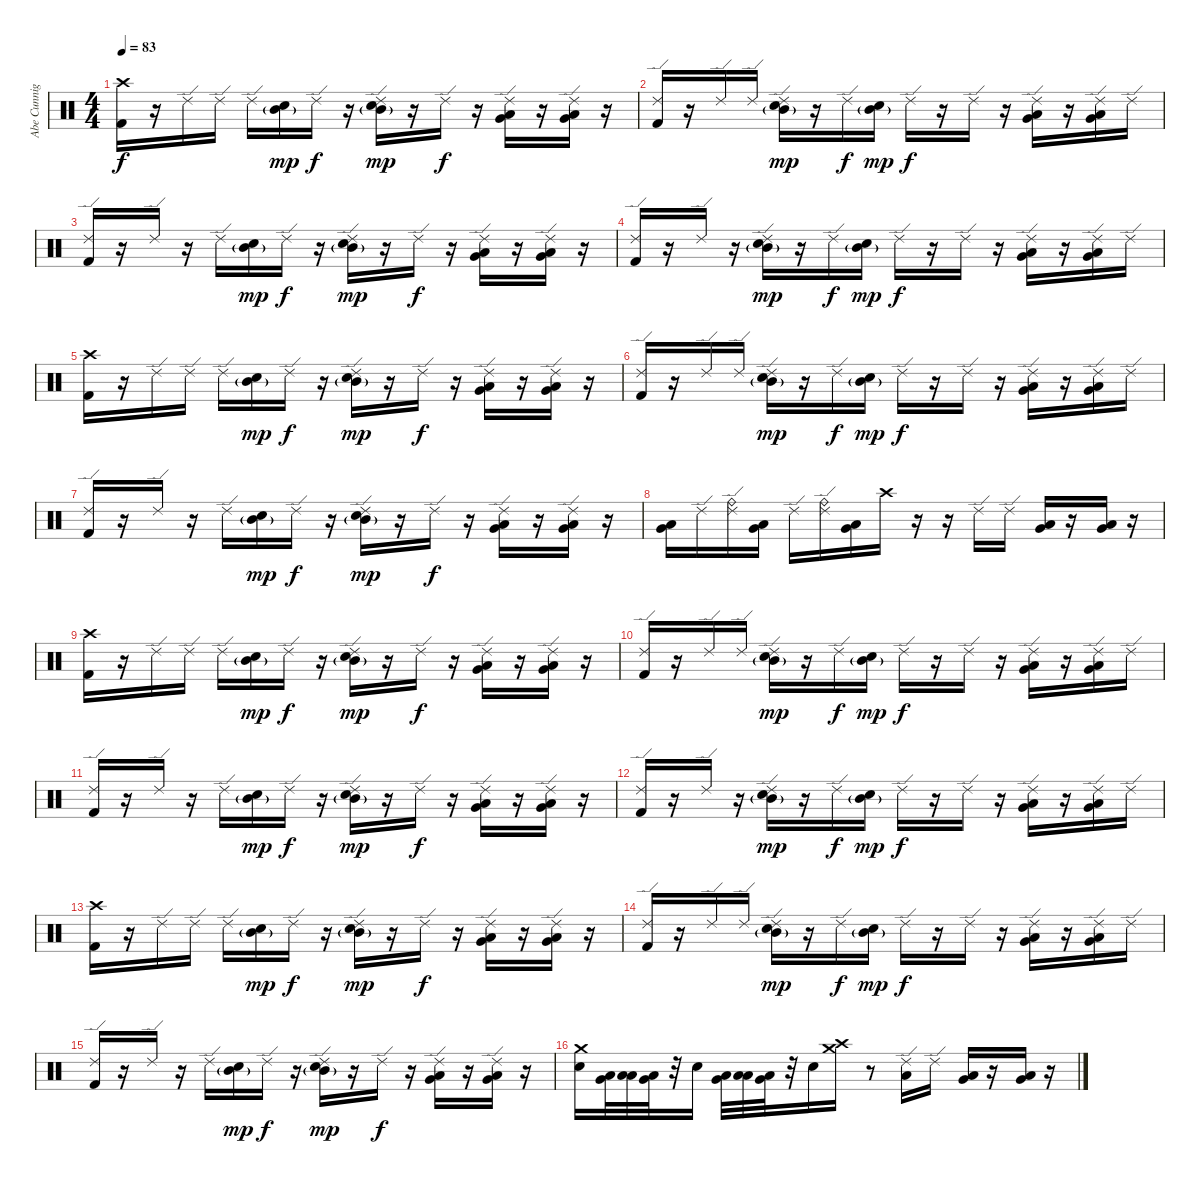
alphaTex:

\track ("Abe Cunnigham" "Abe Cunnig") {instrument percussion}
\staff {score}
\articulation defaults
\ts (4 4)
\tempo 83
\clef neutral
\ks c
("Crash high (hit)" "Kick (hit) 2").16{dy f} r.16 "Ride (edge) 2".16 "Ride (edge) 2".16 "Ride (edge) 2".16 ("Mid Tom (hit)"{g} "Electric Snare (hit)").16{dy mp} "Ride (edge) 2".16{dy f} r.16 ("Ride (edge) 2" "Mid Tom (hit)"{g} "Electric Snare (hit)").16{dy mp} r.16 "Ride (edge) 2".16{dy f} r.16 ("Ride (edge) 2" "Very Low Tom (hit)" "Low Tom (hit)").16 r.16 ("Ride (edge) 2" "Very Low Tom (hit)" "Low Tom (hit)").16 r.16 |
("Ride (edge) 2" "Kick (hit) 2").16 r.16 "Ride (edge) 2".16 "Ride (edge) 2".16 ("Ride (edge) 2" "Mid Tom (hit)"{g} "Electric Snare (hit)").16{dy mp} r.16 "Ride (edge) 2".16{dy f} ("Mid Tom (hit)"{g} "Electric Snare (hit)").16{dy mp} "Ride (edge) 2".16{dy f} r.16 "Ride (edge) 2".16 r.16 ("Ride (edge) 2" "Very Low Tom (hit)" "Low Tom (hit)").16 r.16 ("Ride (edge) 2" "Very Low Tom (hit)" "Low Tom (hit)").16 "Ride (edge) 2".16 |
("Ride (edge) 2" "Kick (hit) 2").16 r.16 "Ride (edge) 2".16 r.16 "Ride (edge) 2".16 ("Mid Tom (hit)"{g} "Electric Snare (hit)").16{dy mp} "Ride (edge) 2".16{dy f} r.16 ("Ride (edge) 2" "Mid Tom (hit)"{g} "Electric Snare (hit)").16{dy mp} r.16 "Ride (edge) 2".16{dy f} r.16 ("Ride (edge) 2" "Very Low Tom (hit)" "Low Tom (hit)").16 r.16 ("Ride (edge) 2" "Very Low Tom (hit)" "Low Tom (hit)").16 r.16 |
("Ride (edge) 2" "Kick (hit) 2").16 r.16 "Ride (edge) 2".16 r.16 ("Ride (edge) 2" "Mid Tom (hit)"{g} "Electric Snare (hit)").16{dy mp} r.16 "Ride (edge) 2".16{dy f} ("Mid Tom (hit)"{g} "Electric Snare (hit)").16{dy mp} "Ride (edge) 2".16{dy f} r.16 "Ride (edge) 2".16 r.16 ("Ride (edge) 2" "Very Low Tom (hit)" "Low Tom (hit)").16 r.16 ("Ride (edge) 2" "Very Low Tom (hit)" "Low Tom (hit)").16 "Ride (edge) 2".16 |
("Crash high (hit)" "Kick (hit) 2").16 r.16 "Ride (edge) 2".16 "Ride (edge) 2".16 "Ride (edge) 2".16 ("Mid Tom (hit)"{g} "Electric Snare (hit)").16{dy mp} "Ride (edge) 2".16{dy f} r.16 ("Ride (edge) 2" "Mid Tom (hit)"{g} "Electric Snare (hit)").16{dy mp} r.16 "Ride (edge) 2".16{dy f} r.16 ("Ride (edge) 2" "Very Low Tom (hit)" "Low Tom (hit)").16 r.16 ("Ride (edge) 2" "Very Low Tom (hit)" "Low Tom (hit)").16 r.16 |
("Ride (edge) 2" "Kick (hit) 2").16 r.16 "Ride (edge) 2".16 "Ride (edge) 2".16 ("Ride (edge) 2" "Mid Tom (hit)"{g} "Electric Snare (hit)").16{dy mp} r.16 "Ride (edge) 2".16{dy f} ("Mid Tom (hit)"{g} "Electric Snare (hit)").16{dy mp} "Ride (edge) 2".16{dy f} r.16 "Ride (edge) 2".16 r.16 ("Ride (edge) 2" "Very Low Tom (hit)" "Low Tom (hit)").16 r.16 ("Ride (edge) 2" "Very Low Tom (hit)" "Low Tom (hit)").16 "Ride (edge) 2".16 |
("Ride (edge) 2" "Kick (hit) 2").16 r.16 "Ride (edge) 2".16 r.16 "Ride (edge) 2".16 ("Mid Tom (hit)"{g} "Electric Snare (hit)").16{dy mp} "Ride (edge) 2".16{dy f} r.16 ("Ride (edge) 2" "Mid Tom (hit)"{g} "Electric Snare (hit)").16{dy mp} r.16 "Ride (edge) 2".16{dy f} r.16 ("Ride (edge) 2" "Very Low Tom (hit)" "Low Tom (hit)").16 r.16 ("Ride (edge) 2" "Very Low Tom (hit)" "Low Tom (hit)").16 r.16 |
("Very Low Tom (hit)" "Low Tom (hit)").16 "Ride (edge) 2".16 ("Ride (bell)" "Ride (edge) 2").16 ("Very Low Tom (hit)" "Low Tom (hit)").16 "Ride (edge) 2".16 ("Ride (bell)" "Ride (edge) 2").16 ("Very Low Tom (hit)" "Low Tom (hit)").16 "Crash high (hit)".16 r.16 r.16 "Ride (edge) 2".16 "Ride (edge) 2".16 ("Very Low Tom (hit)" "Low Tom (hit)").16 r.16 ("Very Low Tom (hit)" "Low Tom (hit)").16 r.16 |
("Crash high (hit)" "Kick (hit) 2").16 r.16 "Ride (edge) 2".16 "Ride (edge) 2".16 "Ride (edge) 2".16 ("Mid Tom (hit)"{g} "Electric Snare (hit)").16{dy mp} "Ride (edge) 2".16{dy f} r.16 ("Ride (edge) 2" "Mid Tom (hit)"{g} "Electric Snare (hit)").16{dy mp} r.16 "Ride (edge) 2".16{dy f} r.16 ("Ride (edge) 2" "Very Low Tom (hit)" "Low Tom (hit)").16 r.16 ("Ride (edge) 2" "Very Low Tom (hit)" "Low Tom (hit)").16 r.16 |
("Ride (edge) 2" "Kick (hit) 2").16 r.16 "Ride (edge) 2".16 "Ride (edge) 2".16 ("Ride (edge) 2" "Mid Tom (hit)"{g} "Electric Snare (hit)").16{dy mp} r.16 "Ride (edge) 2".16{dy f} ("Mid Tom (hit)"{g} "Electric Snare (hit)").16{dy mp} "Ride (edge) 2".16{dy f} r.16 "Ride (edge) 2".16 r.16 ("Ride (edge) 2" "Very Low Tom (hit)" "Low Tom (hit)").16 r.16 ("Ride (edge) 2" "Very Low Tom (hit)" "Low Tom (hit)").16 "Ride (edge) 2".16 |
("Ride (edge) 2" "Kick (hit) 2").16 r.16 "Ride (edge) 2".16 r.16 "Ride (edge) 2".16 ("Mid Tom (hit)"{g} "Electric Snare (hit)").16{dy mp} "Ride (edge) 2".16{dy f} r.16 ("Ride (edge) 2" "Mid Tom (hit)"{g} "Electric Snare (hit)").16{dy mp} r.16 "Ride (edge) 2".16{dy f} r.16 ("Ride (edge) 2" "Very Low Tom (hit)" "Low Tom (hit)").16 r.16 ("Ride (edge) 2" "Very Low Tom (hit)" "Low Tom (hit)").16 r.16 |
("Ride (edge) 2" "Kick (hit) 2").16 r.16 "Ride (edge) 2".16 r.16 ("Ride (edge) 2" "Mid Tom (hit)"{g} "Electric Snare (hit)").16{dy mp} r.16 "Ride (edge) 2".16{dy f} ("Mid Tom (hit)"{g} "Electric Snare (hit)").16{dy mp} "Ride (edge) 2".16{dy f} r.16 "Ride (edge) 2".16 r.16 ("Ride (edge) 2" "Very Low Tom (hit)" "Low Tom (hit)").16 r.16 ("Ride (edge) 2" "Very Low Tom (hit)" "Low Tom (hit)").16 "Ride (edge) 2".16 |
("Crash high (hit)" "Kick (hit) 2").16 r.16 "Ride (edge) 2".16 "Ride (edge) 2".16 "Ride (edge) 2".16 ("Mid Tom (hit)"{g} "Electric Snare (hit)").16{dy mp} "Ride (edge) 2".16{dy f} r.16 ("Ride (edge) 2" "Mid Tom (hit)"{g} "Electric Snare (hit)").16{dy mp} r.16 "Ride (edge) 2".16{dy f} r.16 ("Ride (edge) 2" "Very Low Tom (hit)" "Low Tom (hit)").16 r.16 ("Ride (edge) 2" "Very Low Tom (hit)" "Low Tom (hit)").16 r.16 |
("Ride (edge) 2" "Kick (hit) 2").16 r.16 "Ride (edge) 2".16 "Ride (edge) 2".16 ("Ride (edge) 2" "Mid Tom (hit)"{g} "Electric Snare (hit)").16{dy mp} r.16 "Ride (edge) 2".16{dy f} ("Mid Tom (hit)"{g} "Electric Snare (hit)").16{dy mp} "Ride (edge) 2".16{dy f} r.16 "Ride (edge) 2".16 r.16 ("Ride (edge) 2" "Very Low Tom (hit)" "Low Tom (hit)").16 r.16 ("Ride (edge) 2" "Very Low Tom (hit)" "Low Tom (hit)").16 "Ride (edge) 2".16 |
("Ride (edge) 2" "Kick (hit) 2").16 r.16 "Ride (edge) 2".16 r.16 "Ride (edge) 2".16 ("Mid Tom (hit)"{g} "Electric Snare (hit)").16{dy mp} "Ride (edge) 2".16{dy f} r.16 ("Ride (edge) 2" "Mid Tom (hit)"{g} "Electric Snare (hit)").16{dy mp} r.16 "Ride (edge) 2".16{dy f} r.16 ("Ride (edge) 2" "Very Low Tom (hit)" "Low Tom (hit)").16 r.16 ("Ride (edge) 2" "Very Low Tom (hit)" "Low Tom (hit)").16 r.16 |
("Crash medium (hit)" "Electric Snare (hit)").16 ("Low Tom (hit)" "Very Low Tom (hit)").32 ("Low Tom (hit)" "Low Floor Tom (hit)").32 ("Low Tom (hit)" "Very Low Tom (hit)").32 r.32 "Electric Snare (hit)".16 ("Low Tom (hit)" "Very Low Tom (hit)").32 ("Low Tom (hit)" "Low Floor Tom (hit)").32 ("Low Tom (hit)" "Very Low Tom (hit)").32 r.32 "Electric Snare (hit)".16 ("Crash high (hit)" "Crash medium (hit)").16 r.8 ("Ride (edge) 2" "Low Tom (hit)").16 "Ride (edge) 2".16 ("Very Low Tom (hit)" "Low Tom (hit)").16 r.16 ("Very Low Tom (hit)" "Low Tom (hit)").16 r.16
